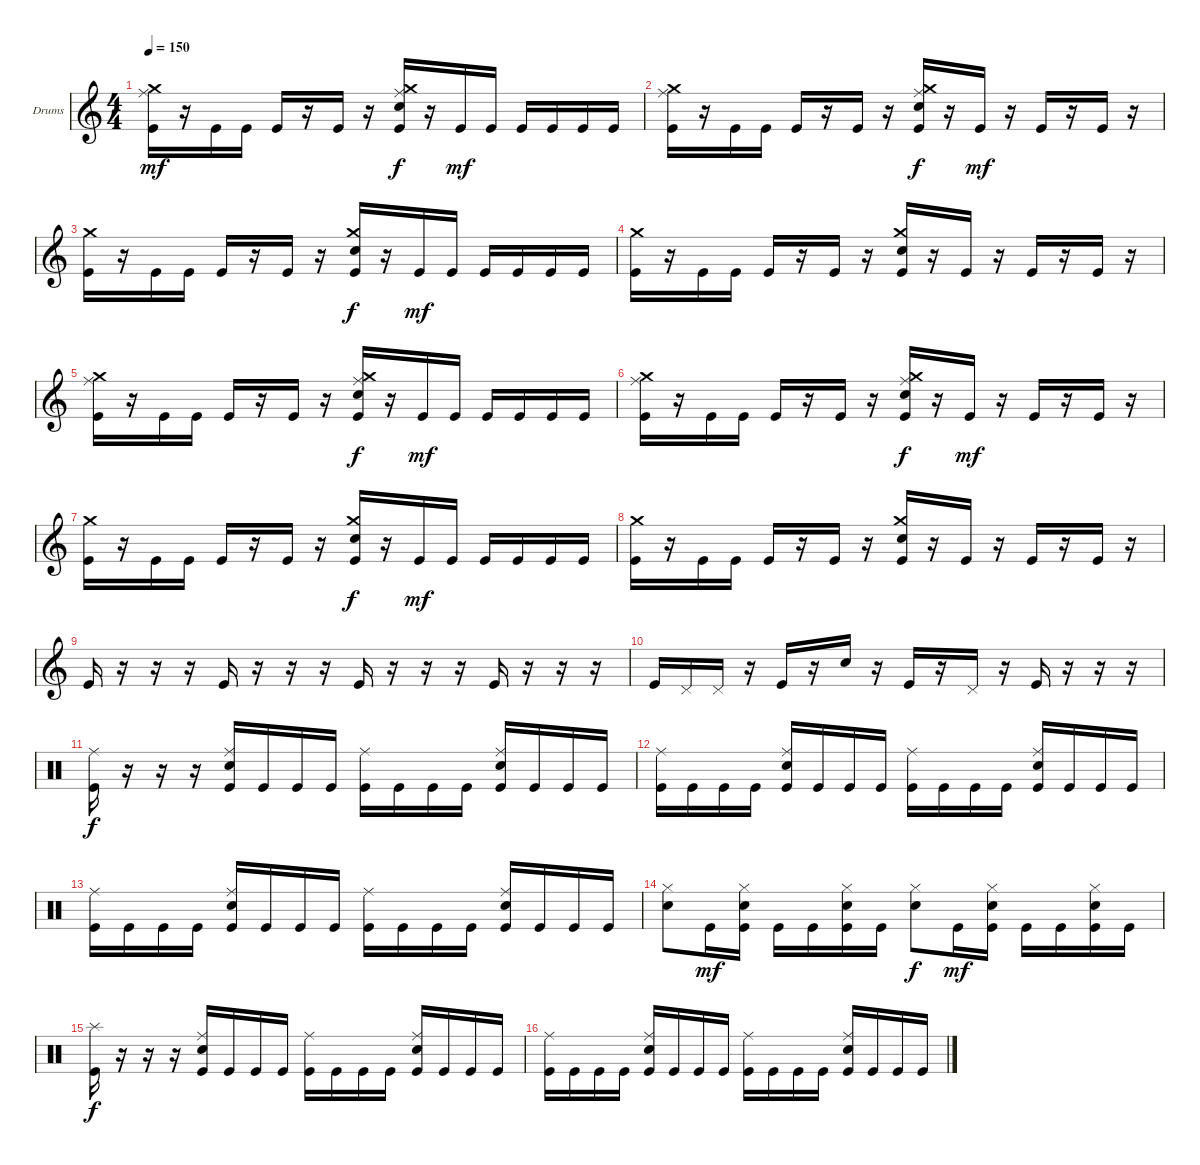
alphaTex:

\defaultSystemsLayout 4
\bracketExtendMode groupsimilarinstruments
\firstSystemTrackNameOrientation horizontal
\otherSystemsTrackNameOrientation horizontal
\track ("Drumkit" "Drums") {instrument percussion}
\staff {score}
\articulation defaults
\ts (4 4)
\tempo 150
\clef g2
\ks c
("Kick (hit)" "Ride (middle)" "Crash medium (hit)").16{dy mf} r.16 "Kick (hit)".16 "Kick (hit)".16 "Kick (hit)".16 r.16 "Kick (hit)".16 r.16 ("Snare (hit) 2" "Kick (hit)" "Ride (middle)" "Crash medium (hit)").16{dy f} r.16 "Kick (hit)".16{dy mf} "Kick (hit)".16 "Kick (hit)".16 "Kick (hit)".16 "Kick (hit)".16 "Kick (hit)".16 |
("Kick (hit)" "Ride (middle)" "Crash medium (hit)").16 r.16 "Kick (hit)".16 "Kick (hit)".16 "Kick (hit)".16 r.16 "Kick (hit)".16 r.16 ("Snare (hit) 2" "Kick (hit)" "Ride (middle)" "Crash medium (hit)").16{dy f} r.16 "Kick (hit)".16{dy mf} r.16 "Kick (hit)".16 r.16 "Kick (hit)".16 r.16 |
("Kick (hit)" "Crash medium (hit)").16 r.16 "Kick (hit)".16 "Kick (hit)".16 "Kick (hit)".16 r.16 "Kick (hit)".16 r.16 ("Snare (hit) 2" "Kick (hit)" "Crash medium (hit)").16{dy f} r.16 "Kick (hit)".16{dy mf} "Kick (hit)".16 "Kick (hit)".16 "Kick (hit)".16 "Kick (hit)".16 "Kick (hit)".16 |
("Kick (hit)" "Crash medium (hit)").16 r.16 "Kick (hit)".16 "Kick (hit)".16 "Kick (hit)".16 r.16 "Kick (hit)".16 r.16 ("Snare (hit) 2" "Kick (hit)" "Crash medium (hit)").16 r.16 "Kick (hit)".16 r.16 "Kick (hit)".16 r.16 "Kick (hit)".16 r.16 |
("Kick (hit)" "Ride (middle)" "Crash medium (hit)").16 r.16 "Kick (hit)".16 "Kick (hit)".16 "Kick (hit)".16 r.16 "Kick (hit)".16 r.16 ("Snare (hit) 2" "Kick (hit)" "Ride (middle)" "Crash medium (hit)").16{dy f} r.16 "Kick (hit)".16{dy mf} "Kick (hit)".16 "Kick (hit)".16 "Kick (hit)".16 "Kick (hit)".16 "Kick (hit)".16 |
("Kick (hit)" "Ride (middle)" "Crash medium (hit)").16 r.16 "Kick (hit)".16 "Kick (hit)".16 "Kick (hit)".16 r.16 "Kick (hit)".16 r.16 ("Snare (hit) 2" "Kick (hit)" "Ride (middle)" "Crash medium (hit)").16{dy f} r.16 "Kick (hit)".16{dy mf} r.16 "Kick (hit)".16 r.16 "Kick (hit)".16 r.16 |
("Kick (hit)" "Crash medium (hit)").16 r.16 "Kick (hit)".16 "Kick (hit)".16 "Kick (hit)".16 r.16 "Kick (hit)".16 r.16 ("Snare (hit) 2" "Kick (hit)" "Crash medium (hit)").16{dy f} r.16 "Kick (hit)".16{dy mf} "Kick (hit)".16 "Kick (hit)".16 "Kick (hit)".16 "Kick (hit)".16 "Kick (hit)".16 |
("Kick (hit)" "Crash medium (hit)").16 r.16 "Kick (hit)".16 "Kick (hit)".16 "Kick (hit)".16 r.16 "Kick (hit)".16 r.16 ("Snare (hit) 2" "Kick (hit)" "Crash medium (hit)").16 r.16 "Kick (hit)".16 r.16 "Kick (hit)".16 r.16 "Kick (hit)".16 r.16 |
"Kick (hit)".16 r.16 r.16 r.16 "Kick (hit)".16 r.16 r.16 r.16 "Kick (hit)".16 r.16 r.16 r.16 "Kick (hit)".16 r.16 r.16 r.16 |
"Kick (hit)".16 "Pedal Hi-Hat (hit)".16 "Pedal Hi-Hat (hit)".16 r.16 "Kick (hit)".16 r.16 "Snare (hit) 2".16 r.16 "Kick (hit)".16 r.16 "Pedal Hi-Hat (hit)".16 r.16 "Kick (hit)".16 r.16 r.16 r.16 |
\clef neutral
("Kick (hit)" "Ride (middle)").16{dy f} r.16 r.16 r.16 ("Snare (hit) 2" "Kick (hit)" "Ride (middle)").16 "Kick (hit)".16 "Kick (hit)".16 "Kick (hit)".16 ("Kick (hit)" "Ride (middle)").16 "Kick (hit)".16 "Kick (hit)".16 "Kick (hit)".16 ("Kick (hit)" "Snare (hit) 2" "Ride (middle)").16 "Kick (hit)".16 "Kick (hit)".16 "Kick (hit)".16 |
("Kick (hit)" "Ride (middle)").16 "Kick (hit)".16 "Kick (hit)".16 "Kick (hit)".16 ("Kick (hit)" "Snare (hit) 2" "Ride (middle)").16 "Kick (hit)".16 "Kick (hit)".16 "Kick (hit)".16 ("Kick (hit)" "Ride (middle)").16 "Kick (hit)".16 "Kick (hit)".16 "Kick (hit)".16 ("Kick (hit)" "Snare (hit) 2" "Ride (middle)").16 "Kick (hit)".16 "Kick (hit)".16 "Kick (hit)".16 |
("Kick (hit)" "Ride (middle)").16 "Kick (hit)".16 "Kick (hit)".16 "Kick (hit)".16 ("Snare (hit) 2" "Kick (hit)" "Ride (middle)").16 "Kick (hit)".16 "Kick (hit)".16 "Kick (hit)".16 ("Kick (hit)" "Ride (middle)").16 "Kick (hit)".16 "Kick (hit)".16 "Kick (hit)".16 ("Kick (hit)" "Snare (hit) 2" "Ride (middle)").16 "Kick (hit)".16 "Kick (hit)".16 "Kick (hit)".16 |
("Snare (hit) 2" "Hi-Hat (closed)").8 "Kick (hit)".16{dy mf} ("Kick (hit)" "Snare (hit) 2" "Hi-Hat (closed)").16 "Kick (hit)".16 "Kick (hit)".16 ("Kick (hit)" "Snare (hit) 2" "Hi-Hat (closed)").16 "Kick (hit)".16 ("Snare (hit) 2" "Hi-Hat (closed)").8{dy f} "Kick (hit)".16{dy mf} ("Kick (hit)" "Snare (hit) 2" "Hi-Hat (closed)").16 "Kick (hit)".16 "Kick (hit)".16 ("Kick (hit)" "Snare (hit) 2" "Hi-Hat (closed)").16 "Kick (hit)".16 |
("Kick (hit)" "Splash (hit)").16{dy f} r.16 r.16 r.16 ("Snare (hit) 2" "Kick (hit)" "Ride (middle)").16 "Kick (hit)".16 "Kick (hit)".16 "Kick (hit)".16 ("Kick (hit)" "Ride (middle)").16 "Kick (hit)".16 "Kick (hit)".16 "Kick (hit)".16 ("Kick (hit)" "Snare (hit) 2" "Ride (middle)").16 "Kick (hit)".16 "Kick (hit)".16 "Kick (hit)".16 |
("Kick (hit)" "Ride (middle)").16 "Kick (hit)".16 "Kick (hit)".16 "Kick (hit)".16 ("Kick (hit)" "Snare (hit) 2" "Ride (middle)").16 "Kick (hit)".16 "Kick (hit)".16 "Kick (hit)".16 ("Kick (hit)" "Ride (middle)").16 "Kick (hit)".16 "Kick (hit)".16 "Kick (hit)".16 ("Kick (hit)" "Snare (hit) 2" "Ride (middle)").16 "Kick (hit)".16 "Kick (hit)".16 "Kick (hit)".16
